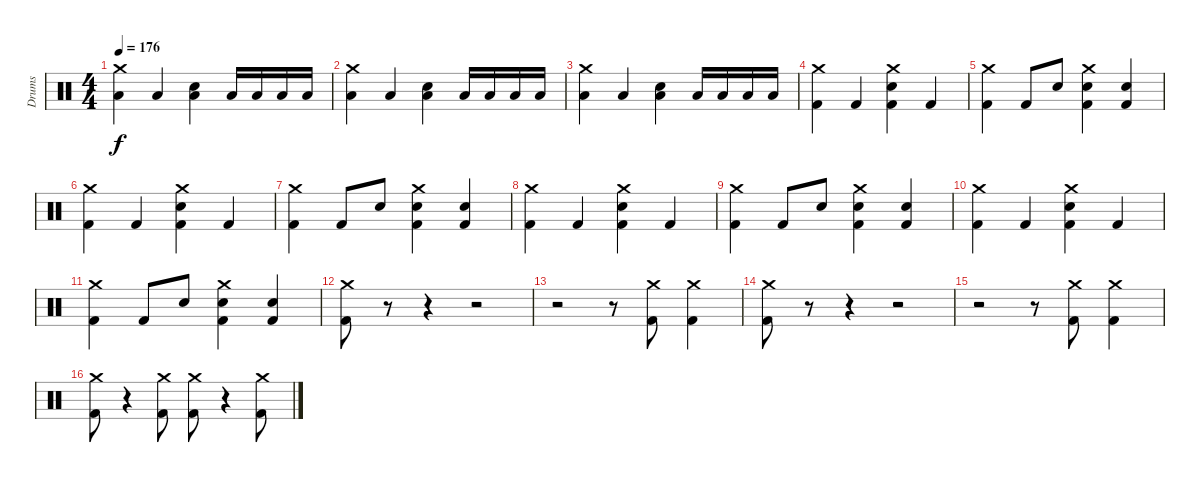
\track ("Drums" "Drums") {instrument percussion}
\staff {score}
\articulation defaults
\ts (4 4)
\tempo 176
\clef neutral
\ks c
("Crash medium (hit)" "Low Tom (hit)").4{dy f} "Low Tom (hit)".4 ("Snare (hit) 2" "Low Tom (hit)").4 "Low Tom (hit)".16 "Low Tom (hit)".16 "Low Tom (hit)".16 "Low Tom (hit)".16 |
("Crash medium (hit)" "Low Tom (hit)").4 "Low Tom (hit)".4 ("Snare (hit) 2" "Low Tom (hit)").4 "Low Tom (hit)".16 "Low Tom (hit)".16 "Low Tom (hit)".16 "Low Tom (hit)".16 |
("Crash medium (hit)" "Low Tom (hit)").4 "Low Tom (hit)".4 ("Snare (hit) 2" "Low Tom (hit)").4 "Low Tom (hit)".16 "Low Tom (hit)".16 "Low Tom (hit)".16 "Low Tom (hit)".16 |
("Crash medium (hit)" "Kick (hit) 2").4 "Kick (hit) 2".4 ("Crash medium (hit)" "Snare (hit) 2" "Kick (hit) 2").4 "Kick (hit) 2".4 |
("Crash medium (hit)" "Kick (hit) 2").4 "Kick (hit) 2".8 "Snare (hit) 2".8 ("Crash medium (hit)" "Snare (hit) 2" "Kick (hit) 2").4 ("Snare (hit) 2" "Kick (hit) 2").4 |
("Crash medium (hit)" "Kick (hit) 2").4 "Kick (hit) 2".4 ("Crash medium (hit)" "Snare (hit) 2" "Kick (hit) 2").4 "Kick (hit) 2".4 |
("Crash medium (hit)" "Kick (hit) 2").4 "Kick (hit) 2".8 "Snare (hit) 2".8 ("Crash medium (hit)" "Snare (hit) 2" "Kick (hit) 2").4 ("Snare (hit) 2" "Kick (hit) 2").4 |
("Crash medium (hit)" "Kick (hit) 2").4 "Kick (hit) 2".4 ("Crash medium (hit)" "Snare (hit) 2" "Kick (hit) 2").4 "Kick (hit) 2".4 |
("Crash medium (hit)" "Kick (hit) 2").4 "Kick (hit) 2".8 "Snare (hit) 2".8 ("Crash medium (hit)" "Snare (hit) 2" "Kick (hit) 2").4 ("Snare (hit) 2" "Kick (hit) 2").4 |
("Crash medium (hit)" "Kick (hit) 2").4 "Kick (hit) 2".4 ("Crash medium (hit)" "Snare (hit) 2" "Kick (hit) 2").4 "Kick (hit) 2".4 |
("Crash medium (hit)" "Kick (hit) 2").4 "Kick (hit) 2".8 "Snare (hit) 2".8 ("Crash medium (hit)" "Snare (hit) 2" "Kick (hit) 2").4 ("Snare (hit) 2" "Kick (hit) 2").4 |
("Crash medium (hit)" "Kick (hit) 2").8 r.8 r.4 r.2 |
r.2 r.8 ("Crash medium (hit)" "Kick (hit) 2").8 ("Crash medium (hit)" "Kick (hit) 2").4 |
("Crash medium (hit)" "Kick (hit) 2").8 r.8 r.4 r.2 |
r.2 r.8 ("Crash medium (hit)" "Kick (hit) 2").8 ("Crash medium (hit)" "Kick (hit) 2").4 |
("Crash medium (hit)" "Kick (hit) 2").8 r.4 ("Crash medium (hit)" "Kick (hit) 2").8 ("Crash medium (hit)" "Kick (hit) 2").8 r.4 ("Crash medium (hit)" "Kick (hit) 2").8
